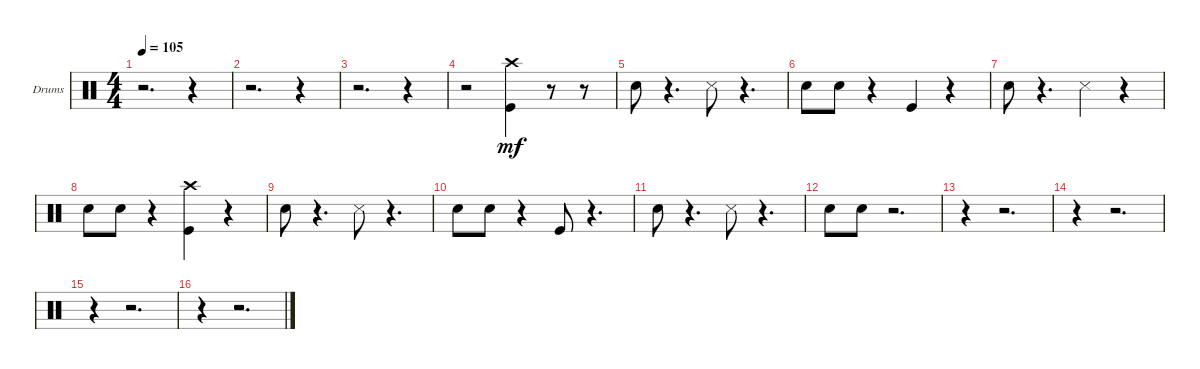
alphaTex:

\defaultSystemsLayout 4
\bracketExtendMode groupsimilarinstruments
\firstSystemTrackNameOrientation horizontal
\otherSystemsTrackNameOrientation horizontal
\track ("Drumkit" "Drums") {instrument percussion}
\staff {score}
\articulation defaults
\ts (4 4)
\tempo 105
\clef neutral
\scale
0.333333
\ks c
r.2{d dy mf} r.4 |
\scale
0.333333 r.2{d} r.4 |
\scale
0.333333 r.2{d} r.4 |
\scale
0.333333 r.2 ("Crash high (hit)" "Kick (hit)").4 r.8 r.8 |
\scale
0.333333 "Snare (hit) 2".8 r.4{d} "Snare (side stick) 3".8 r.4{d} |
\scale
0.333333 "Snare (hit) 2".8 "Snare (hit) 2".8 r.4 "Kick (hit)".4 r.4 |
\scale
0.333333 "Snare (hit) 2".8 r.4{d} "Snare (side stick) 3".4 r.4 |
\scale
0.333333 "Snare (hit) 2".8 "Snare (hit) 2".8 r.4 ("Crash high (hit)" "Kick (hit)").4 r.4 |
\scale
0.333333 "Snare (hit) 2".8 r.4{d} "Snare (side stick) 3".8 r.4{d} |
\scale
0.333333 "Snare (hit) 2".8 "Snare (hit) 2".8 r.4 "Kick (hit)".8 r.4{d} |
\scale
0.333333 "Snare (hit) 2".8 r.4{d} "Snare (side stick) 3".8 r.4{d} |
\scale
0.333333 "Snare (hit) 2".8 "Snare (hit) 2".8 r.2{d} |
\scale
0.333333 r.4 r.2{d} |
\scale
0.333333 r.4 r.2{d} |
\scale
0.333333 r.4 r.2{d} |
\scale
0.333333 r.4 r.2{d}
